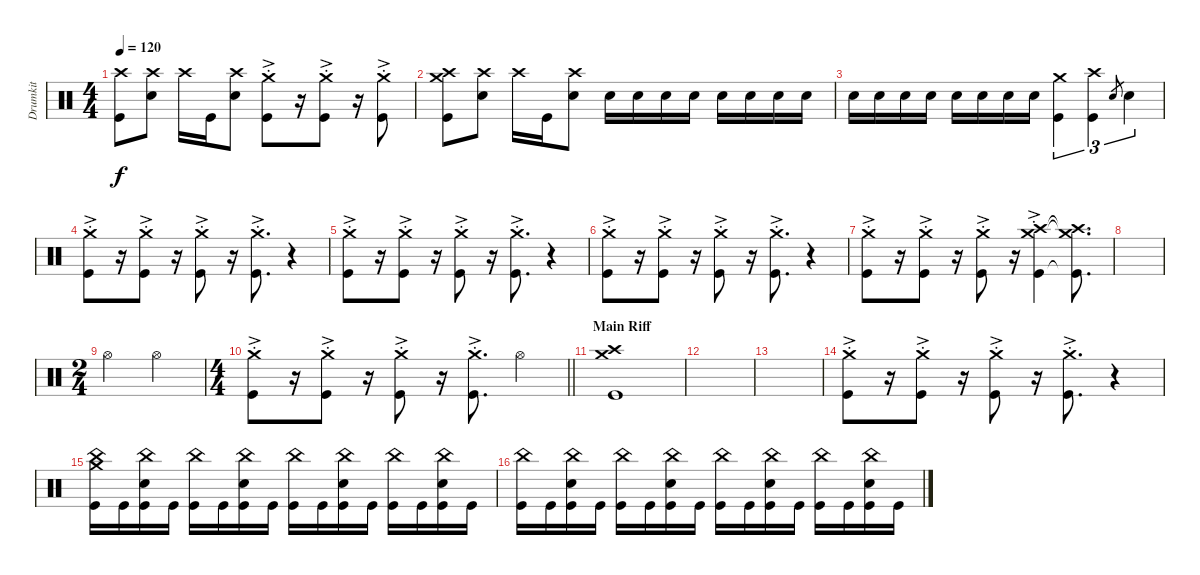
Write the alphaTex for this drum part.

\track ("Drumkit" "Drumkit") {instrument percussion}
\staff {score}
\articulation defaults
\ts (4 4)
\tempo 120
\clef neutral
\ks c
("Kick (hit)" "Crash high (hit)").8{dy f} ("Snare (hit) 2" "Crash high (hit)").8 "Crash high (hit)".16 "Kick (hit)".16 ("Snare (hit) 2" "Crash high (hit)").8 ("Kick (hit)" "Crash medium (hit)"{ac st}).8 r.16 ("Kick (hit)" "Crash medium (hit)"{ac st}).8 r.16 ("Kick (hit)" "Crash medium (hit)"{ac st}).8 |
("Kick (hit)" "Crash high (hit)" "Crash medium (hit)").8 ("Snare (hit) 2" "Crash high (hit)").8 "Crash high (hit)".16 "Kick (hit)".16 ("Snare (hit) 2" "Crash high (hit)").8 "Snare (hit) 2".16 "Snare (hit) 2".16 "Snare (hit) 2".16 "Snare (hit) 2".16 "Snare (hit) 2".16 "Snare (hit) 2".16 "Snare (hit) 2".16 "Snare (hit) 2".16 |
"Snare (hit) 2".16 "Snare (hit) 2".16 "Snare (hit) 2".16 "Snare (hit) 2".16 "Snare (hit) 2".16 "Snare (hit) 2".16 "Snare (hit) 2".16 "Snare (hit) 2".16 ("Crash medium (hit)" "Kick (hit)").4{tu (3 2)} ("Kick (hit)" "Crash high (hit)").4{tu (3 2)} "Snare (hit)".8{gr} "Snare (hit) 2".4{tu (3 2)} |
("Kick (hit)" "Crash medium (hit)"{ac st}).8 r.16 ("Kick (hit)" "Crash medium (hit)"{ac st}).8 r.16 ("Kick (hit)" "Crash medium (hit)"{ac st}).8 r.16 ("Kick (hit)" "Crash medium (hit)"{ac st}).8{d} r.4 |
("Kick (hit)" "Crash medium (hit)"{ac st}).8 r.16 ("Kick (hit)" "Crash medium (hit)"{ac st}).8 r.16 ("Kick (hit)" "Crash medium (hit)"{ac st}).8 r.16 ("Kick (hit)" "Crash medium (hit)"{ac st}).8{d} r.4 |
("Kick (hit)" "Crash medium (hit)"{ac st}).8 r.16 ("Kick (hit)" "Crash medium (hit)"{ac st}).8 r.16 ("Kick (hit)" "Crash medium (hit)"{ac st}).8 r.16 ("Kick (hit)" "Crash medium (hit)"{ac st}).8{d} r.4 |
("Kick (hit)" "Crash medium (hit)"{ac st}).8 r.16 ("Kick (hit)" "Crash medium (hit)"{ac st}).8 r.16 ("Kick (hit)" "Crash medium (hit)"{ac st}).8 r.16 ("Kick (hit)" "Crash medium (hit)"{ac st} "Crash high (hit)").4 ("Kick (hit)"{t} "Crash medium (hit)"{t} "Crash high (hit)"{t}).8{d} |
|
\ts (2 4)
"Hi-Hat (open)".4 "Hi-Hat (open)".4 |
\ts (4 4)
\barLineRight lightlight
("Kick (hit)" "Crash medium (hit)"{ac st}).8 r.16 ("Kick (hit)" "Crash medium (hit)"{ac st}).8 r.16 ("Kick (hit)" "Crash medium (hit)"{ac st}).8 r.16 ("Kick (hit)" "Crash medium (hit)"{ac st}).8{d} "Hi-Hat (open)".4 |
\section ("" "Main Riff")
("Crash medium (hit)" "Kick (hit)" "Crash high (hit)").1 |
|
|
("Kick (hit)" "Crash medium (hit)"{ac st}).8 r.16 ("Kick (hit)" "Crash medium (hit)"{ac st}).8 r.16 ("Kick (hit)" "Crash medium (hit)"{ac st}).8 r.16 ("Kick (hit)" "Crash medium (hit)"{ac st}).8{d} r.4 |
("China (hit)" "Kick (hit)" "Crash medium (hit)").16 "Kick (hit)".16 ("Kick (hit)" "Snare (hit) 2" "China (hit)").16 "Kick (hit)".16 ("Kick (hit)" "China (hit)").16 "Kick (hit)".16 ("Kick (hit)" "Snare (hit) 2" "China (hit)").16 "Kick (hit)".16 ("Kick (hit)" "China (hit)").16 "Kick (hit)".16 ("Kick (hit)" "Snare (hit) 2" "China (hit)").16 "Kick (hit)".16 ("Kick (hit)" "China (hit)").16 "Kick (hit)".16 ("Kick (hit)" "Snare (hit) 2" "China (hit)").16 "Kick (hit)".16 |
("China (hit)" "Kick (hit)").16 "Kick (hit)".16 ("Kick (hit)" "Snare (hit) 2" "China (hit)").16 "Kick (hit)".16 ("Kick (hit)" "China (hit)").16 "Kick (hit)".16 ("Kick (hit)" "Snare (hit) 2" "China (hit)").16 "Kick (hit)".16 ("Kick (hit)" "China (hit)").16 "Kick (hit)".16 ("Kick (hit)" "Snare (hit) 2" "China (hit)").16 "Kick (hit)".16 ("Kick (hit)" "China (hit)").16 "Kick (hit)".16 ("Kick (hit)" "Snare (hit) 2" "China (hit)").16 "Kick (hit)".16
